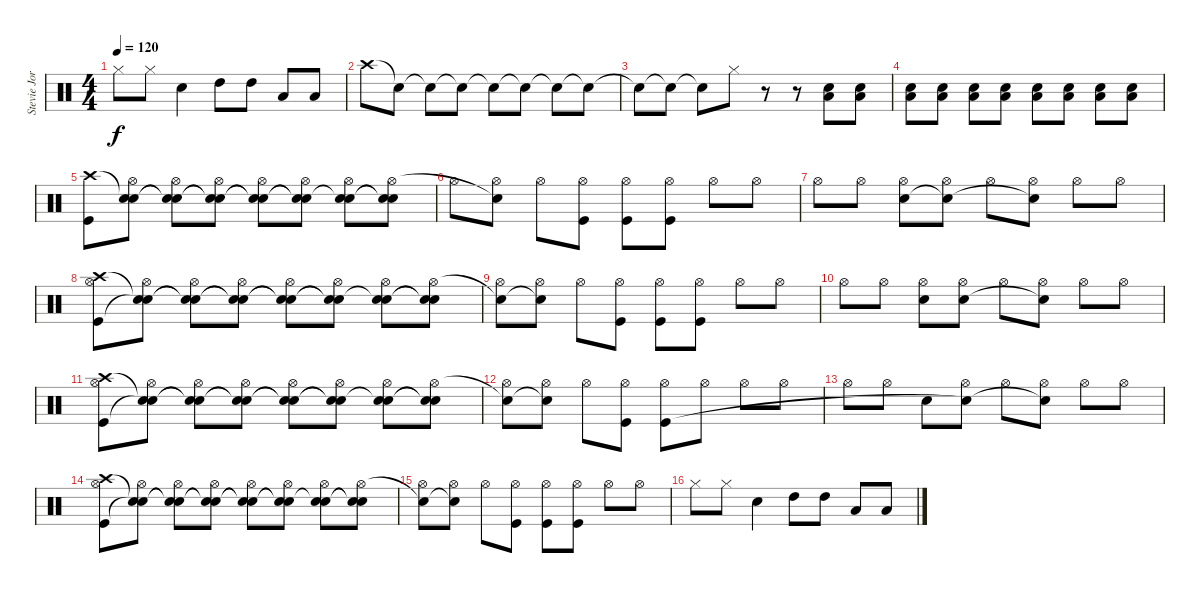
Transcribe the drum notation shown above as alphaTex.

\track ("Stevie Jordan" "Stevie Jor") {instrument percussion}
\staff {score}
\articulation defaults
\ts (4 4)
\tempo 120
\clef neutral
\ks c "Hi-Hat (closed)".8{dy f} "Hi-Hat (closed)".8 "Snare (hit) 2".4 "High Tom (hit)".8 "High Tom (hit)".8 "Low Tom (hit)".8 "Low Tom (hit)".8
|
"Crash high (hit)".8 "Snare (hit)"{t}.8 "Snare (hit)"{t}.8 "Snare (hit)"{t}.8 "Snare (hit)"{t}.8 "Snare (hit)"{t}.8 "Snare (hit)"{t}.8 "Snare (hit)"{t}.8 |
"Snare (hit)"{t}.8 "Snare (hit)"{t}.8 "Snare (hit)"{t}.8 "Hi-Hat (closed)".8 r.8 r.8 ("Snare (hit) 2" "Low Floor Tom (hit)").8 ("Snare (hit) 2" "Low Floor Tom (hit)").8 |
("Snare (hit) 2" "Low Floor Tom (hit)").8 ("Snare (hit) 2" "Low Floor Tom (hit)").8 ("Snare (hit) 2" "Low Floor Tom (hit)").8 ("Snare (hit) 2" "Low Floor Tom (hit)").8 ("Snare (hit) 2" "Low Floor Tom (hit)").8 ("Snare (hit) 2" "Low Floor Tom (hit)").8 ("Snare (hit) 2" "Low Floor Tom (hit)").8 ("Snare (hit) 2" "Low Floor Tom (hit)").8 |
("Crash high (hit)" "Kick (hit)").8 ("Snare (hit)"{t} "Hi-Hat (open)" "Snare (hit)").8 ("Snare (hit)"{t} "Hi-Hat (open)" "Snare (hit)"{t}).8 ("Snare (hit)"{t} "Hi-Hat (open)" "Snare (hit)"{t}).8 ("Snare (hit)"{t} "Hi-Hat (open)" "Snare (hit)"{t}).8 ("Snare (hit)"{t} "Hi-Hat (open)" "Snare (hit)"{t}).8 ("Snare (hit)"{t} "Hi-Hat (open)" "Snare (hit) 2").8 ("Snare (hit)"{t} "Hi-Hat (open)" "Snare (hit)"{t}).8 |
"Hi-Hat (open)".8 ("Hi-Hat (open)" "Snare (hit)"{t}).8 "Hi-Hat (open)".8 ("Hi-Hat (open)" "Kick (hit)").8 ("Hi-Hat (open)" "Kick (hit)").8 ("Hi-Hat (open)" "Kick (hit)").8 "Hi-Hat (open)".8 "Hi-Hat (open)".8 |
"Hi-Hat (open)".8 "Hi-Hat (open)".8 ("Hi-Hat (open)" "Snare (hit) 2").8 ("Hi-Hat (open)" "Snare (hit)"{t}).8 "Hi-Hat (open)".8 ("Hi-Hat (open)" "Snare (hit)"{t}).8 "Hi-Hat (open)".8 "Hi-Hat (open)".8 |
("Crash high (hit)" "Hi-Hat (open)" "Kick (hit)").8 ("Snare (hit)"{t} "Hi-Hat (open)" "Snare (hit)"{t}).8 ("Snare (hit)"{t} "Hi-Hat (open)" "Snare (hit)"{t}).8 ("Snare (hit)"{t} "Hi-Hat (open)" "Snare (hit)"{t}).8 ("Snare (hit)"{t} "Hi-Hat (open)" "Snare (hit)"{t}).8 ("Snare (hit)"{t} "Hi-Hat (open)" "Snare (hit)"{t}).8 ("Snare (hit)"{t} "Hi-Hat (open)" "Snare (hit) 2").8 ("Snare (hit)"{t} "Hi-Hat (open)" "Snare (hit)"{t}).8 |
("Hi-Hat (open)" "Snare (hit)"{t}).8 ("Hi-Hat (open)" "Snare (hit)"{t}).8 "Hi-Hat (open)".8 ("Hi-Hat (open)" "Kick (hit)").8 ("Hi-Hat (open)" "Kick (hit)").8 ("Hi-Hat (open)" "Kick (hit)").8 "Hi-Hat (open)".8 "Hi-Hat (open)".8 |
"Hi-Hat (open)".8 "Hi-Hat (open)".8 ("Hi-Hat (open)" "Snare (hit) 2").8 ("Hi-Hat (open)" "Snare (hit) 2").8 "Hi-Hat (open)".8 ("Hi-Hat (open)" "Snare (hit)"{t}).8 "Hi-Hat (open)".8 "Hi-Hat (open)".8 |
("Crash high (hit)" "Hi-Hat (open)" "Kick (hit)").8 ("Snare (hit)"{t} "Hi-Hat (open)" "Snare (hit)"{t}).8 ("Snare (hit)"{t} "Hi-Hat (open)" "Snare (hit)"{t}).8 ("Snare (hit)"{t} "Hi-Hat (open)" "Snare (hit)"{t}).8 ("Snare (hit)"{t} "Hi-Hat (open)" "Snare (hit)"{t}).8 ("Snare (hit)"{t} "Hi-Hat (open)" "Snare (hit)"{t}).8 ("Snare (hit)"{t} "Hi-Hat (open)" "Snare (hit) 2").8 ("Snare (hit)"{t} "Hi-Hat (open)" "Snare (hit)"{t}).8 |
("Hi-Hat (open)" "Snare (hit)"{t}).8 ("Hi-Hat (open)" "Snare (hit)"{t}).8 "Hi-Hat (open)".8 ("Hi-Hat (open)" "Kick (hit)").8 ("Hi-Hat (open)" "Kick (hit)").8 "Hi-Hat (open)".8 "Hi-Hat (open)".8 "Hi-Hat (open)".8 |
"Hi-Hat (open)".8 "Hi-Hat (open)".8 "Snare (hit) 2".8 ("Hi-Hat (open)" "Snare (hit)"{t}).8 "Hi-Hat (open)".8 ("Hi-Hat (open)" "Snare (hit)"{t}).8 "Hi-Hat (open)".8 "Hi-Hat (open)".8 |
("Crash high (hit)" "Hi-Hat (open)" "Kick (hit)").8 ("Snare (hit)"{t} "Hi-Hat (open)" "Snare (hit)"{t}).8 ("Snare (hit)"{t} "Hi-Hat (open)" "Snare (hit)"{t}).8 ("Snare (hit)"{t} "Hi-Hat (open)" "Snare (hit)"{t}).8 ("Snare (hit)"{t} "Hi-Hat (open)" "Snare (hit)"{t}).8 ("Snare (hit)"{t} "Hi-Hat (open)" "Snare (hit)"{t}).8 ("Snare (hit)"{t} "Hi-Hat (open)" "Snare (hit) 2").8 ("Snare (hit)"{t} "Hi-Hat (open)" "Snare (hit)"{t}).8 |
("Hi-Hat (open)" "Snare (hit)"{t}).8 ("Hi-Hat (open)" "Snare (hit)"{t}).8 "Hi-Hat (open)".8 ("Hi-Hat (open)" "Kick (hit)").8 ("Hi-Hat (open)" "Kick (hit)").8 ("Hi-Hat (open)" "Kick (hit)").8 "Hi-Hat (open)".8 "Hi-Hat (open)".8 |
"Hi-Hat (closed)".8 "Hi-Hat (closed)".8 "Snare (hit) 2".4 "High Tom (hit)".8 "High Tom (hit)".8 "Low Tom (hit)".8 "Low Tom (hit)".8
